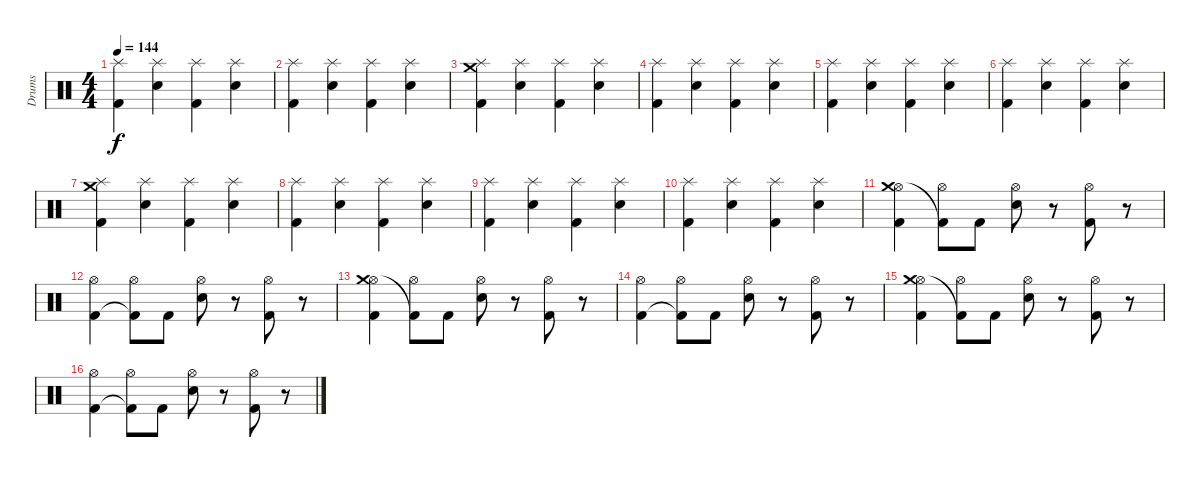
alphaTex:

\track ("Drums" "Drums") {instrument percussion}
\staff {score}
\articulation defaults
\ts (4 4)
\tempo 144
\clef neutral
\ks c
("Splash (hit)" "Kick (hit) 2").4{dy f} ("Splash (hit)" "Snare (hit) 2").4 ("Splash (hit)" "Kick (hit) 2").4 ("Splash (hit)" "Snare (hit) 2").4 |
("Splash (hit)" "Kick (hit) 2").4 ("Splash (hit)" "Snare (hit) 2").4 ("Splash (hit)" "Kick (hit) 2").4 ("Splash (hit)" "Snare (hit) 2").4 |
("Splash (hit)" "Crash medium (hit)" "Kick (hit) 2").4 ("Splash (hit)" "Snare (hit) 2").4 ("Splash (hit)" "Kick (hit) 2").4 ("Splash (hit)" "Snare (hit) 2").4 |
("Splash (hit)" "Kick (hit) 2").4 ("Splash (hit)" "Snare (hit) 2").4 ("Splash (hit)" "Kick (hit) 2").4 ("Splash (hit)" "Snare (hit) 2").4 |
("Splash (hit)" "Kick (hit) 2").4 ("Splash (hit)" "Snare (hit) 2").4 ("Splash (hit)" "Kick (hit) 2").4 ("Splash (hit)" "Snare (hit) 2").4 |
("Splash (hit)" "Kick (hit) 2").4 ("Splash (hit)" "Snare (hit) 2").4 ("Splash (hit)" "Kick (hit) 2").4 ("Splash (hit)" "Snare (hit) 2").4 |
("Splash (hit)" "Crash medium (hit)" "Kick (hit) 2").4 ("Splash (hit)" "Snare (hit) 2").4 ("Splash (hit)" "Kick (hit) 2").4 ("Splash (hit)" "Snare (hit) 2").4 |
("Splash (hit)" "Kick (hit) 2").4 ("Splash (hit)" "Snare (hit) 2").4 ("Splash (hit)" "Kick (hit) 2").4 ("Splash (hit)" "Snare (hit) 2").4 |
("Splash (hit)" "Kick (hit) 2").4 ("Splash (hit)" "Snare (hit) 2").4 ("Splash (hit)" "Kick (hit) 2").4 ("Splash (hit)" "Snare (hit) 2").4 |
("Splash (hit)" "Kick (hit) 2").4 ("Splash (hit)" "Snare (hit) 2").4 ("Splash (hit)" "Kick (hit) 2").4 ("Splash (hit)" "Snare (hit) 2").4 |
("Hi-Hat (open)" "Crash medium (hit)" "Kick (hit) 2").4 ("Hi-Hat (open)" "Kick (hit) 2"{t}).8 "Kick (hit) 2".8 ("Hi-Hat (open)" "Snare (hit) 2").8 r.8 ("Hi-Hat (open)" "Kick (hit) 2").8 r.8 |
("Hi-Hat (open)" "Kick (hit) 2").4 ("Hi-Hat (open)" "Kick (hit) 2"{t}).8 "Kick (hit) 2".8 ("Hi-Hat (open)" "Snare (hit) 2").8 r.8 ("Hi-Hat (open)" "Kick (hit) 2").8 r.8 |
("Hi-Hat (open)" "Crash medium (hit)" "Kick (hit) 2").4 ("Hi-Hat (open)" "Kick (hit) 2"{t}).8 "Kick (hit) 2".8 ("Hi-Hat (open)" "Snare (hit) 2").8 r.8 ("Hi-Hat (open)" "Kick (hit) 2").8 r.8 |
("Hi-Hat (open)" "Kick (hit) 2").4 ("Hi-Hat (open)" "Kick (hit) 2"{t}).8 "Kick (hit) 2".8 ("Hi-Hat (open)" "Snare (hit) 2").8 r.8 ("Hi-Hat (open)" "Kick (hit) 2").8 r.8 |
("Hi-Hat (open)" "Crash medium (hit)" "Kick (hit) 2").4 ("Hi-Hat (open)" "Kick (hit) 2"{t}).8 "Kick (hit) 2".8 ("Hi-Hat (open)" "Snare (hit) 2").8 r.8 ("Hi-Hat (open)" "Kick (hit) 2").8 r.8 |
("Hi-Hat (open)" "Kick (hit) 2").4 ("Hi-Hat (open)" "Kick (hit) 2"{t}).8 "Kick (hit) 2".8 ("Hi-Hat (open)" "Snare (hit) 2").8 r.8 ("Hi-Hat (open)" "Kick (hit) 2").8 r.8
